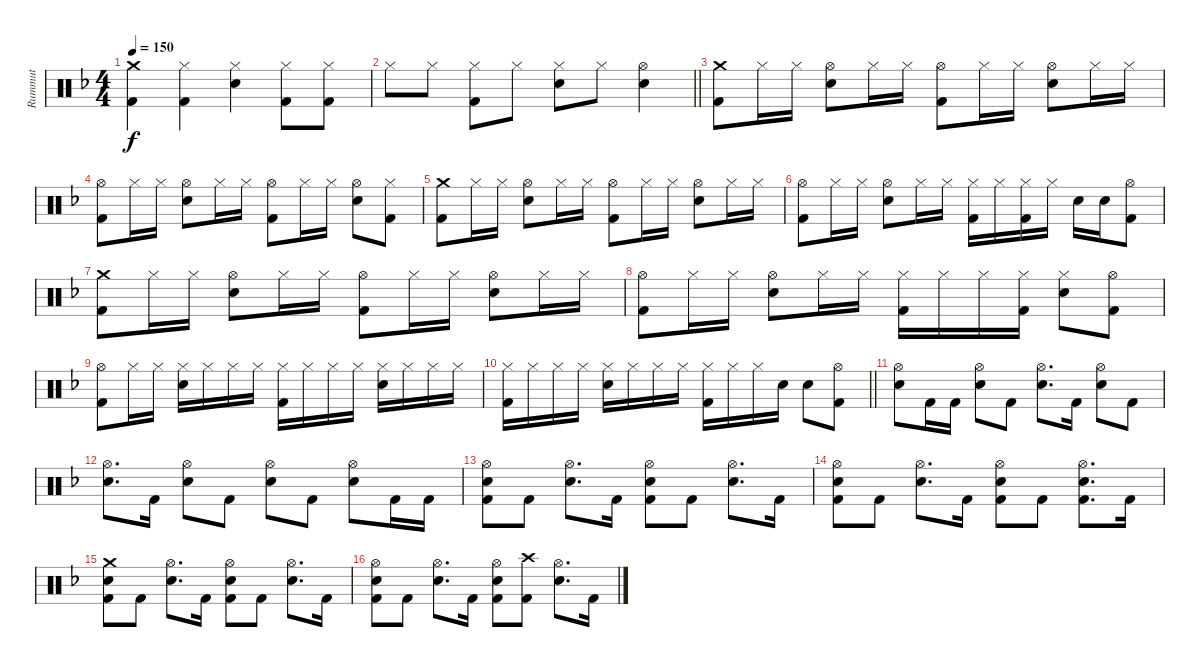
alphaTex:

\track ("Rummut" "Rummut") {instrument percussion}
\staff {score}
\articulation defaults
\ts (4 4)
\tempo 150
\clef neutral
\ks dminor
("Crash medium (hit)" "Kick (hit) 2").4{dy f} ("Hi-Hat (closed)" "Kick (hit) 2").4 ("Hi-Hat (closed)" "Snare (hit) 2").4 ("Hi-Hat (closed)" "Kick (hit) 2").8 ("Hi-Hat (closed)" "Kick (hit) 2").8 |
\barLineRight lightlight "Hi-Hat (closed)".8 "Hi-Hat (closed)".8
("Hi-Hat (closed)" "Kick (hit) 2").8 "Hi-Hat (closed)".8 ("Hi-Hat (closed)" "Snare (hit) 2").8 "Hi-Hat (closed)".8 ("Hi-Hat (open)" "Snare (hit) 2").4 |
("Crash medium (hit)" "Kick (hit) 2").8 "Hi-Hat (closed)".16 "Hi-Hat (closed)".16 ("Hi-Hat (open)" "Snare (hit) 2").8 "Hi-Hat (closed)".16 "Hi-Hat (closed)".16 ("Hi-Hat (open)" "Kick (hit) 2").8 "Hi-Hat (closed)".16 "Hi-Hat (closed)".16 ("Hi-Hat (open)" "Snare (hit) 2").8 "Hi-Hat (closed)".16 "Hi-Hat (closed)".16 |
("Hi-Hat (open)" "Kick (hit) 2").8 "Hi-Hat (closed)".16 "Hi-Hat (closed)".16 ("Hi-Hat (open)" "Snare (hit) 2").8 "Hi-Hat (closed)".16 "Hi-Hat (closed)".16 ("Hi-Hat (open)" "Kick (hit) 2").8 "Hi-Hat (closed)".16 "Hi-Hat (closed)".16 ("Hi-Hat (open)" "Snare (hit) 2").8 ("Hi-Hat (closed)" "Kick (hit) 2").8 |
("Crash medium (hit)" "Kick (hit) 2").8 "Hi-Hat (closed)".16 "Hi-Hat (closed)".16 ("Hi-Hat (open)" "Snare (hit) 2").8 "Hi-Hat (closed)".16 "Hi-Hat (closed)".16 ("Hi-Hat (open)" "Kick (hit) 2").8 "Hi-Hat (closed)".16 "Hi-Hat (closed)".16 ("Hi-Hat (open)" "Snare (hit) 2").8 "Hi-Hat (closed)".16 "Hi-Hat (closed)".16 |
("Hi-Hat (open)" "Kick (hit) 2").8 "Hi-Hat (closed)".16 "Hi-Hat (closed)".16 ("Hi-Hat (open)" "Snare (hit) 2").8 "Hi-Hat (closed)".16 "Hi-Hat (closed)".16 ("Hi-Hat (closed)" "Kick (hit) 2").16 "Hi-Hat (closed)".16 ("Hi-Hat (closed)" "Kick (hit) 2").16 "Hi-Hat (closed)".16 "Snare (hit) 2".16 "Snare (hit) 2".16 ("Hi-Hat (open)" "Kick (hit) 2").8 |
("Crash medium (hit)" "Kick (hit) 2").8 "Hi-Hat (closed)".16 "Hi-Hat (closed)".16 ("Hi-Hat (open)" "Snare (hit) 2").8 "Hi-Hat (closed)".16 "Hi-Hat (closed)".16 ("Hi-Hat (open)" "Kick (hit) 2").8 "Hi-Hat (closed)".16 "Hi-Hat (closed)".16 ("Hi-Hat (open)" "Snare (hit) 2").8 "Hi-Hat (closed)".16 "Hi-Hat (closed)".16 |
("Hi-Hat (open)" "Kick (hit) 2").8 "Hi-Hat (closed)".16 "Hi-Hat (closed)".16 ("Hi-Hat (open)" "Snare (hit) 2").8 "Hi-Hat (closed)".16 "Hi-Hat (closed)".16 ("Hi-Hat (closed)" "Kick (hit) 2").16 "Hi-Hat (closed)".16 "Hi-Hat (closed)".16 ("Hi-Hat (closed)" "Kick (hit) 2").16 ("Hi-Hat (closed)" "Snare (hit) 2").8 ("Hi-Hat (open)" "Kick (hit) 2").8 |
("Hi-Hat (open)" "Kick (hit) 2").8 "Hi-Hat (closed)".16 "Hi-Hat (closed)".16 ("Hi-Hat (closed)" "Snare (hit) 2").16 "Hi-Hat (closed)".16 "Hi-Hat (closed)".16 "Hi-Hat (closed)".16 ("Hi-Hat (closed)" "Kick (hit) 2").16 "Hi-Hat (closed)".16 "Hi-Hat (closed)".16 "Hi-Hat (closed)".16 ("Hi-Hat (closed)" "Snare (hit) 2").16 "Hi-Hat (closed)".16 "Hi-Hat (closed)".16 "Hi-Hat (closed)".16 |
\barLineRight lightlight
("Hi-Hat (closed)" "Kick (hit) 2").16 "Hi-Hat (closed)".16 "Hi-Hat (closed)".16 "Hi-Hat (closed)".16 ("Hi-Hat (closed)" "Snare (hit) 2").16 "Hi-Hat (closed)".16 "Hi-Hat (closed)".16 "Hi-Hat (closed)".16 ("Hi-Hat (closed)" "Kick (hit) 2").16 "Hi-Hat (closed)".16 "Hi-Hat (closed)".16 "Snare (hit) 2".16 "Snare (hit) 2".8 ("Hi-Hat (open)" "Kick (hit) 2").8 |
("Hi-Hat (open)" "Snare (hit) 2").8 "Kick (hit) 2".16 "Kick (hit) 2".16 ("Hi-Hat (open)" "Snare (hit) 2").8 "Kick (hit) 2".8 ("Hi-Hat (open)" "Snare (hit) 2").8{d} "Kick (hit) 2".16 ("Hi-Hat (open)" "Snare (hit) 2").8 "Kick (hit) 2".8 |
("Hi-Hat (open)" "Snare (hit) 2").8{d} "Kick (hit) 2".16 ("Hi-Hat (open)" "Snare (hit) 2").8 "Kick (hit) 2".8 ("Hi-Hat (open)" "Snare (hit) 2").8 "Kick (hit) 2".8 ("Hi-Hat (open)" "Snare (hit) 2").8 "Kick (hit) 2".16 "Kick (hit) 2".16 |
("Hi-Hat (open)" "Snare (hit) 2" "Kick (hit) 2").8 "Kick (hit) 2".8 ("Hi-Hat (open)" "Snare (hit) 2").8{d} "Kick (hit) 2".16 ("Hi-Hat (open)" "Snare (hit) 2" "Kick (hit) 2").8 "Kick (hit) 2".8 ("Hi-Hat (open)" "Snare (hit) 2").8{d} "Kick (hit) 2".16 |
("Hi-Hat (open)" "Snare (hit) 2" "Kick (hit) 2").8 "Kick (hit) 2".8 ("Hi-Hat (open)" "Snare (hit) 2").8{d} "Kick (hit) 2".16 ("Hi-Hat (open)" "Snare (hit) 2" "Kick (hit) 2").8 "Kick (hit) 2".8 ("Hi-Hat (open)" "Snare (hit) 2" "Kick (hit) 2").8{d} "Kick (hit) 2".16 |
("Crash medium (hit)" "Snare (hit) 2" "Kick (hit) 2").8 "Kick (hit) 2".8 ("Hi-Hat (open)" "Snare (hit) 2").8{d} "Kick (hit) 2".16 ("Hi-Hat (open)" "Snare (hit) 2" "Kick (hit) 2").8 "Kick (hit) 2".8 ("Hi-Hat (open)" "Snare (hit) 2").8{d} "Kick (hit) 2".16 |
("Hi-Hat (open)" "Snare (hit) 2" "Kick (hit) 2").8 "Kick (hit) 2".8 ("Hi-Hat (open)" "Snare (hit) 2").8{d} "Kick (hit) 2".16 ("Hi-Hat (open)" "Snare (hit) 2" "Kick (hit) 2").8 ("Crash high (hit)" "Kick (hit) 2").8 ("Hi-Hat (open)" "Snare (hit) 2").8{d} "Kick (hit) 2".16
